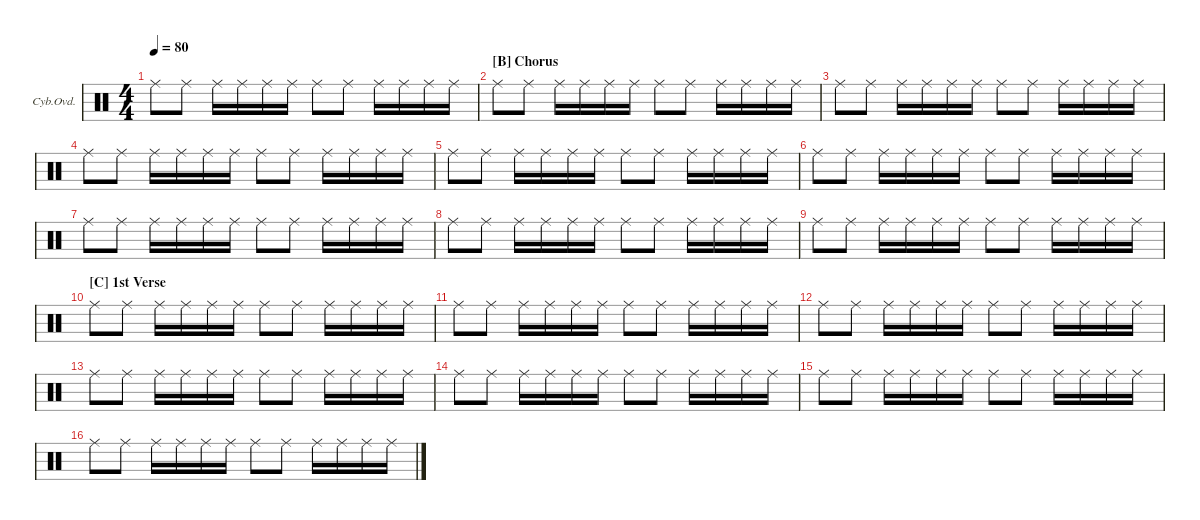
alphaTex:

\defaultSystemsLayout 4
\hideDynamics
\bracketExtendMode groupsimilarinstruments
\firstSystemTrackNameOrientation horizontal
\otherSystemsTrackNameOrientation horizontal
\track ("Cymbal Overdub" "Cyb.Ovd.") {multiBarRest instrument percussion}
\staff {score}
\articulation defaults
\ts (4 4)
\tempo 80
\clef neutral
\ks c "Ride (middle)".8{dy p} "Ride (middle)".8 "Ride (middle)".16 "Ride (middle)".16 "Ride (middle)".16 "Ride (middle)".16 "Ride (middle)".8 "Ride (middle)".8 "Ride (middle)".16 "Ride (middle)".16 "Ride (middle)".16 "Ride (middle)".16
|
\section ("B" "Chorus")
"Ride (middle)".8 "Ride (middle)".8 "Ride (middle)".16 "Ride (middle)".16 "Ride (middle)".16 "Ride (middle)".16 "Ride (middle)".8 "Ride (middle)".8 "Ride (middle)".16 "Ride (middle)".16 "Ride (middle)".16 "Ride (middle)".16 |
"Ride (middle)".8 "Ride (middle)".8 "Ride (middle)".16 "Ride (middle)".16 "Ride (middle)".16 "Ride (middle)".16 "Ride (middle)".8 "Ride (middle)".8 "Ride (middle)".16 "Ride (middle)".16 "Ride (middle)".16 "Ride (middle)".16 |
"Ride (middle)".8 "Ride (middle)".8 "Ride (middle)".16 "Ride (middle)".16 "Ride (middle)".16 "Ride (middle)".16 "Ride (middle)".8 "Ride (middle)".8 "Ride (middle)".16 "Ride (middle)".16 "Ride (middle)".16 "Ride (middle)".16 |
"Ride (middle)".8 "Ride (middle)".8 "Ride (middle)".16 "Ride (middle)".16 "Ride (middle)".16 "Ride (middle)".16 "Ride (middle)".8 "Ride (middle)".8 "Ride (middle)".16 "Ride (middle)".16 "Ride (middle)".16 "Ride (middle)".16 |
"Ride (middle)".8 "Ride (middle)".8 "Ride (middle)".16 "Ride (middle)".16 "Ride (middle)".16 "Ride (middle)".16 "Ride (middle)".8 "Ride (middle)".8 "Ride (middle)".16 "Ride (middle)".16 "Ride (middle)".16 "Ride (middle)".16 |
"Ride (middle)".8 "Ride (middle)".8 "Ride (middle)".16 "Ride (middle)".16 "Ride (middle)".16 "Ride (middle)".16 "Ride (middle)".8 "Ride (middle)".8 "Ride (middle)".16 "Ride (middle)".16 "Ride (middle)".16 "Ride (middle)".16 |
"Ride (middle)".8 "Ride (middle)".8 "Ride (middle)".16 "Ride (middle)".16 "Ride (middle)".16 "Ride (middle)".16 "Ride (middle)".8 "Ride (middle)".8 "Ride (middle)".16 "Ride (middle)".16 "Ride (middle)".16 "Ride (middle)".16 |
"Ride (middle)".8 "Ride (middle)".8 "Ride (middle)".16 "Ride (middle)".16 "Ride (middle)".16 "Ride (middle)".16 "Ride (middle)".8 "Ride (middle)".8 "Ride (middle)".16 "Ride (middle)".16 "Ride (middle)".16 "Ride (middle)".16 |
\section ("C" "1st Verse")
"Ride (middle)".8 "Ride (middle)".8 "Ride (middle)".16 "Ride (middle)".16 "Ride (middle)".16 "Ride (middle)".16 "Ride (middle)".8 "Ride (middle)".8 "Ride (middle)".16 "Ride (middle)".16 "Ride (middle)".16 "Ride (middle)".16 |
"Ride (middle)".8 "Ride (middle)".8 "Ride (middle)".16 "Ride (middle)".16 "Ride (middle)".16 "Ride (middle)".16 "Ride (middle)".8 "Ride (middle)".8 "Ride (middle)".16 "Ride (middle)".16 "Ride (middle)".16 "Ride (middle)".16 |
"Ride (middle)".8 "Ride (middle)".8 "Ride (middle)".16 "Ride (middle)".16 "Ride (middle)".16 "Ride (middle)".16 "Ride (middle)".8 "Ride (middle)".8 "Ride (middle)".16 "Ride (middle)".16 "Ride (middle)".16 "Ride (middle)".16 |
"Ride (middle)".8 "Ride (middle)".8 "Ride (middle)".16 "Ride (middle)".16 "Ride (middle)".16 "Ride (middle)".16 "Ride (middle)".8 "Ride (middle)".8 "Ride (middle)".16 "Ride (middle)".16 "Ride (middle)".16 "Ride (middle)".16 |
"Ride (middle)".8 "Ride (middle)".8 "Ride (middle)".16 "Ride (middle)".16 "Ride (middle)".16 "Ride (middle)".16 "Ride (middle)".8 "Ride (middle)".8 "Ride (middle)".16 "Ride (middle)".16 "Ride (middle)".16 "Ride (middle)".16 |
"Ride (middle)".8 "Ride (middle)".8 "Ride (middle)".16 "Ride (middle)".16 "Ride (middle)".16 "Ride (middle)".16 "Ride (middle)".8 "Ride (middle)".8 "Ride (middle)".16 "Ride (middle)".16 "Ride (middle)".16 "Ride (middle)".16 |
"Ride (middle)".8 "Ride (middle)".8 "Ride (middle)".16 "Ride (middle)".16 "Ride (middle)".16 "Ride (middle)".16 "Ride (middle)".8 "Ride (middle)".8 "Ride (middle)".16 "Ride (middle)".16 "Ride (middle)".16 "Ride (middle)".16
